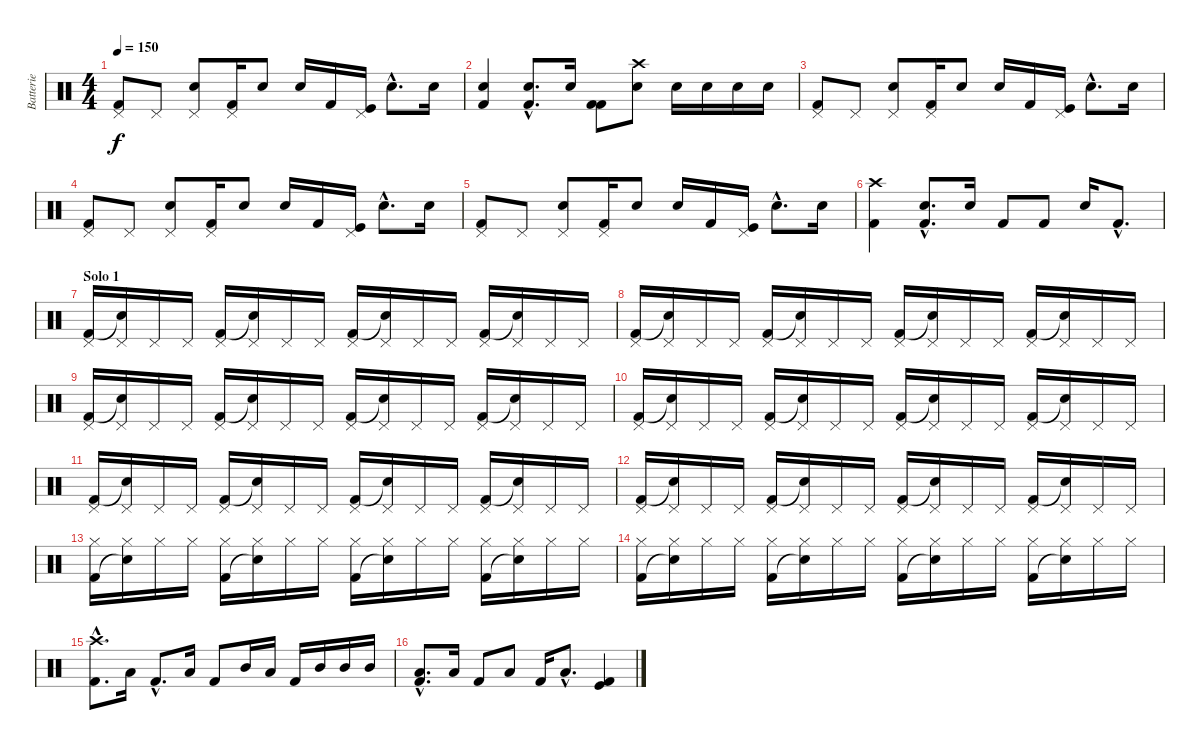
\track ("Batterie" "Batterie") {instrument percussion}
\staff {score}
\articulation defaults
\ts (4 4)
\tempo 150
\clef neutral
\ks c
("Pedal Hi-Hat (hit)" "Kick (hit) 2").8{dy f} "Pedal Hi-Hat (hit)".8 ("Pedal Hi-Hat (hit)" "Electric Snare (hit)").8 ("Pedal Hi-Hat (hit)" "Kick (hit) 2").16 "Electric Snare (hit)".8 "Electric Snare (hit)".16 "Kick (hit) 2".16 ("Pedal Hi-Hat (hit)" "Kick (hit)").16 "Electric Snare (hit)"{hac}.8{d} "Electric Snare (hit)".16 |
("Electric Snare (hit)" "Kick (hit) 2").4 ("Electric Snare (hit)"{hac} "Kick (hit) 2"{hac}).8{d} "Electric Snare (hit)".16 ("Kick (hit) 2" "Kick (hit) 2").8 ("Crash high (hit)" "Electric Snare (hit)").8 "Electric Snare (hit)".16 "Electric Snare (hit)".16 "Electric Snare (hit)".16 "Electric Snare (hit)".16 |
("Pedal Hi-Hat (hit)" "Kick (hit) 2").8 "Pedal Hi-Hat (hit)".8 ("Pedal Hi-Hat (hit)" "Electric Snare (hit)").8 ("Pedal Hi-Hat (hit)" "Kick (hit) 2").16 "Electric Snare (hit)".8 "Electric Snare (hit)".16 "Kick (hit) 2".16 ("Pedal Hi-Hat (hit)" "Kick (hit)").16 "Electric Snare (hit)"{hac}.8{d} "Electric Snare (hit)".16 |
("Pedal Hi-Hat (hit)" "Kick (hit) 2").8 "Pedal Hi-Hat (hit)".8 ("Pedal Hi-Hat (hit)" "Electric Snare (hit)").8 ("Pedal Hi-Hat (hit)" "Kick (hit) 2").16 "Electric Snare (hit)".8 "Electric Snare (hit)".16 "Kick (hit) 2".16 ("Pedal Hi-Hat (hit)" "Kick (hit)").16 "Electric Snare (hit)"{hac}.8{d} "Electric Snare (hit)".16 |
("Pedal Hi-Hat (hit)" "Kick (hit) 2").8 "Pedal Hi-Hat (hit)".8 ("Pedal Hi-Hat (hit)" "Electric Snare (hit)").8 ("Pedal Hi-Hat (hit)" "Kick (hit) 2").16 "Electric Snare (hit)".8 "Electric Snare (hit)".16 "Kick (hit) 2".16 ("Pedal Hi-Hat (hit)" "Kick (hit)").16 "Electric Snare (hit)"{hac}.8{d} "Electric Snare (hit)".16 |
("Crash high (hit)" "Kick (hit) 2").4 ("Electric Snare (hit)"{hac} "Kick (hit) 2"{hac}).8{d} "Electric Snare (hit)".16 "Kick (hit) 2".8 "Kick (hit) 2".8 "Electric Snare (hit)".16 "Kick (hit) 2"{hac}.8{d} |
\section ("" "Solo 1")
("Pedal Hi-Hat (hit)" "Kick (hit) 2").16 ("Pedal Hi-Hat (hit)" "Snare (hit)"{t}).16 "Pedal Hi-Hat (hit)".16 "Pedal Hi-Hat (hit)".16 ("Pedal Hi-Hat (hit)" "Kick (hit) 2").16 ("Pedal Hi-Hat (hit)" "Snare (hit)"{t}).16 "Pedal Hi-Hat (hit)".16 "Pedal Hi-Hat (hit)".16 ("Pedal Hi-Hat (hit)" "Kick (hit) 2").16 ("Pedal Hi-Hat (hit)" "Snare (hit)"{t}).16 "Pedal Hi-Hat (hit)".16 "Pedal Hi-Hat (hit)".16 ("Pedal Hi-Hat (hit)" "Kick (hit) 2").16 ("Pedal Hi-Hat (hit)" "Snare (hit)"{t}).16 "Pedal Hi-Hat (hit)".16 "Pedal Hi-Hat (hit)".16 |
("Pedal Hi-Hat (hit)" "Kick (hit) 2").16 ("Pedal Hi-Hat (hit)" "Snare (hit)"{t}).16 "Pedal Hi-Hat (hit)".16 "Pedal Hi-Hat (hit)".16 ("Pedal Hi-Hat (hit)" "Kick (hit) 2").16 ("Pedal Hi-Hat (hit)" "Snare (hit)"{t}).16 "Pedal Hi-Hat (hit)".16 "Pedal Hi-Hat (hit)".16 ("Pedal Hi-Hat (hit)" "Kick (hit) 2").16 ("Pedal Hi-Hat (hit)" "Snare (hit)"{t}).16 "Pedal Hi-Hat (hit)".16 "Pedal Hi-Hat (hit)".16 ("Pedal Hi-Hat (hit)" "Kick (hit) 2").16 ("Pedal Hi-Hat (hit)" "Snare (hit)"{t}).16 "Pedal Hi-Hat (hit)".16 "Pedal Hi-Hat (hit)".16 |
("Pedal Hi-Hat (hit)" "Kick (hit) 2").16 ("Pedal Hi-Hat (hit)" "Snare (hit)"{t}).16 "Pedal Hi-Hat (hit)".16 "Pedal Hi-Hat (hit)".16 ("Pedal Hi-Hat (hit)" "Kick (hit) 2").16 ("Pedal Hi-Hat (hit)" "Snare (hit)"{t}).16 "Pedal Hi-Hat (hit)".16 "Pedal Hi-Hat (hit)".16 ("Pedal Hi-Hat (hit)" "Kick (hit) 2").16 ("Pedal Hi-Hat (hit)" "Snare (hit)"{t}).16 "Pedal Hi-Hat (hit)".16 "Pedal Hi-Hat (hit)".16 ("Pedal Hi-Hat (hit)" "Kick (hit) 2").16 ("Pedal Hi-Hat (hit)" "Snare (hit)"{t}).16 "Pedal Hi-Hat (hit)".16 "Pedal Hi-Hat (hit)".16 |
("Pedal Hi-Hat (hit)" "Kick (hit) 2").16 ("Pedal Hi-Hat (hit)" "Snare (hit)"{t}).16 "Pedal Hi-Hat (hit)".16 "Pedal Hi-Hat (hit)".16 ("Pedal Hi-Hat (hit)" "Kick (hit) 2").16 ("Pedal Hi-Hat (hit)" "Snare (hit)"{t}).16 "Pedal Hi-Hat (hit)".16 "Pedal Hi-Hat (hit)".16 ("Pedal Hi-Hat (hit)" "Kick (hit) 2").16 ("Pedal Hi-Hat (hit)" "Snare (hit)"{t}).16 "Pedal Hi-Hat (hit)".16 "Pedal Hi-Hat (hit)".16 ("Pedal Hi-Hat (hit)" "Kick (hit) 2").16 ("Pedal Hi-Hat (hit)" "Snare (hit)"{t}).16 "Pedal Hi-Hat (hit)".16 "Pedal Hi-Hat (hit)".16 |
("Pedal Hi-Hat (hit)" "Kick (hit) 2").16 ("Pedal Hi-Hat (hit)" "Snare (hit)"{t}).16 "Pedal Hi-Hat (hit)".16 "Pedal Hi-Hat (hit)".16 ("Pedal Hi-Hat (hit)" "Kick (hit) 2").16 ("Pedal Hi-Hat (hit)" "Snare (hit)"{t}).16 "Pedal Hi-Hat (hit)".16 "Pedal Hi-Hat (hit)".16 ("Pedal Hi-Hat (hit)" "Kick (hit) 2").16 ("Pedal Hi-Hat (hit)" "Snare (hit)"{t}).16 "Pedal Hi-Hat (hit)".16 "Pedal Hi-Hat (hit)".16 ("Pedal Hi-Hat (hit)" "Kick (hit) 2").16 ("Pedal Hi-Hat (hit)" "Snare (hit)"{t}).16 "Pedal Hi-Hat (hit)".16 "Pedal Hi-Hat (hit)".16 |
("Pedal Hi-Hat (hit)" "Kick (hit) 2").16 ("Pedal Hi-Hat (hit)" "Snare (hit)"{t}).16 "Pedal Hi-Hat (hit)".16 "Pedal Hi-Hat (hit)".16 ("Pedal Hi-Hat (hit)" "Kick (hit) 2").16 ("Pedal Hi-Hat (hit)" "Snare (hit)"{t}).16 "Pedal Hi-Hat (hit)".16 "Pedal Hi-Hat (hit)".16 ("Pedal Hi-Hat (hit)" "Kick (hit) 2").16 ("Pedal Hi-Hat (hit)" "Snare (hit)"{t}).16 "Pedal Hi-Hat (hit)".16 "Pedal Hi-Hat (hit)".16 ("Pedal Hi-Hat (hit)" "Kick (hit) 2").16 ("Pedal Hi-Hat (hit)" "Snare (hit)"{t}).16 "Pedal Hi-Hat (hit)".16 "Pedal Hi-Hat (hit)".16 |
("Hi-Hat (closed)" "Kick (hit) 2").16 ("Hi-Hat (closed)" "Snare (hit)"{t}).16 "Hi-Hat (closed)".16 "Hi-Hat (closed)".16 ("Hi-Hat (closed)" "Kick (hit) 2").16 ("Hi-Hat (closed)" "Snare (hit)"{t}).16 "Hi-Hat (closed)".16 "Hi-Hat (closed)".16 ("Hi-Hat (closed)" "Kick (hit) 2").16 ("Hi-Hat (closed)" "Snare (hit)"{t}).16 "Hi-Hat (closed)".16 "Hi-Hat (closed)".16 ("Hi-Hat (closed)" "Kick (hit) 2").16 ("Hi-Hat (closed)" "Snare (hit)"{t}).16 "Hi-Hat (closed)".16 "Hi-Hat (closed)".16 |
("Hi-Hat (closed)" "Kick (hit) 2").16 ("Hi-Hat (closed)" "Snare (hit)"{t}).16 "Hi-Hat (closed)".16 "Hi-Hat (closed)".16 ("Hi-Hat (closed)" "Kick (hit) 2").16 ("Hi-Hat (closed)" "Snare (hit)"{t}).16 "Hi-Hat (closed)".16 "Hi-Hat (closed)".16 ("Hi-Hat (closed)" "Kick (hit) 2").16 ("Hi-Hat (closed)" "Snare (hit)"{t}).16 "Hi-Hat (closed)".16 "Hi-Hat (closed)".16 ("Hi-Hat (closed)" "Kick (hit) 2").16 ("Hi-Hat (closed)" "Snare (hit)"{t}).16 "Hi-Hat (closed)".16 "Hi-Hat (closed)".16 |
("Crash high (hit)"{hac} "Kick (hit) 2"{hac}).8{d} "Low Tom (hit)".16 "Kick (hit) 2"{hac}.8{d} "Low Tom (hit)".16 "Kick (hit) 2".8 "Mid Tom (hit)".16 "Low Tom (hit)".16 "Kick (hit) 2".16 "Mid Tom (hit)".16 "Mid Tom (hit)".16 "Mid Tom (hit)".16 |
("Low Tom (hit)"{hac} "Kick (hit) 2"{hac}).8{d} "Low Tom (hit)".16 "Kick (hit) 2".8 "Low Tom (hit)".8 "Kick (hit) 2".16 "Low Tom (hit)"{hac}.8{d} ("Kick (hit)" "Kick (hit) 2").4
